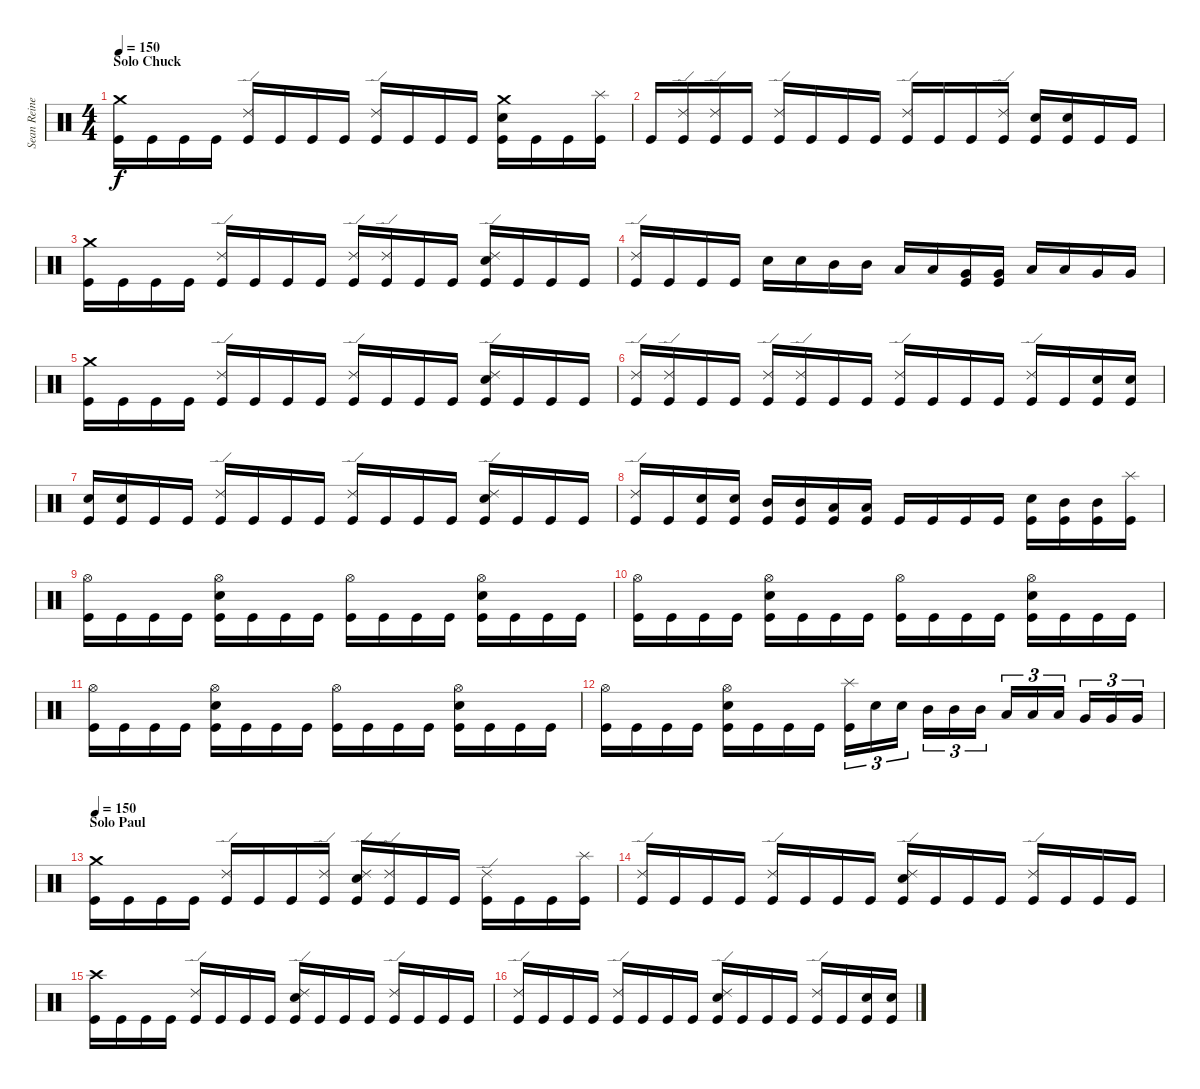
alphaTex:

\track ("Sean Reinert " "Sean Reine") {instrument percussion}
\staff {score}
\articulation defaults
\ts (4 4)
\section ("" "Solo Chuck")
\tempo 150
\clef neutral
\ks c
("Crash medium (hit)" "Kick (hit)").16{dy f} "Kick (hit)".16 "Kick (hit)".16 "Kick (hit)".16 ("Ride (edge) 2" "Kick (hit)").16 "Kick (hit)".16 "Kick (hit)".16 "Kick (hit)".16 ("Ride (edge) 2" "Kick (hit)").16 "Kick (hit)".16 "Kick (hit)".16 "Kick (hit)".16 ("Crash medium (hit)" "Electric Snare (hit)" "Kick (hit)").16 "Kick (hit)".16 "Kick (hit)".16 ("Splash (hit)" "Kick (hit)").16 |
"Kick (hit)".16 ("Ride (edge) 2" "Kick (hit)").16 ("Ride (edge) 2" "Kick (hit)").16 "Kick (hit)".16 ("Ride (edge) 2" "Kick (hit)").16 "Kick (hit)".16 "Kick (hit)".16 "Kick (hit)".16 ("Ride (edge) 2" "Kick (hit)").16 "Kick (hit)".16 "Kick (hit)".16 ("Ride (edge) 2" "Kick (hit)").16 ("Electric Snare (hit)" "Kick (hit)").16 ("Electric Snare (hit)" "Kick (hit)").16 "Kick (hit)".16 "Kick (hit)".16 |
("Crash medium (hit)" "Kick (hit)").16 "Kick (hit)".16 "Kick (hit)".16 "Kick (hit)".16 ("Ride (edge) 2" "Kick (hit)").16 "Kick (hit)".16 "Kick (hit)".16 "Kick (hit)".16 ("Ride (edge) 2" "Kick (hit)").16 ("Ride (edge) 2" "Kick (hit)").16 "Kick (hit)".16 "Kick (hit)".16 ("Ride (edge) 2" "Electric Snare (hit)" "Kick (hit)").16 "Kick (hit)".16 "Kick (hit)".16 "Kick (hit)".16 |
("Ride (edge) 2" "Kick (hit)").16 "Kick (hit)".16 "Kick (hit)".16 "Kick (hit)".16 "Electric Snare (hit)".16 "Electric Snare (hit)".16 "Mid Tom (hit)".16 "Mid Tom (hit)".16 "Low Tom (hit)".16 "Low Tom (hit)".16 ("Very Low Tom (hit)" "Kick (hit)").16 ("Very Low Tom (hit)" "Kick (hit)").16 "Low Tom (hit)".16 "Low Tom (hit)".16 "Very Low Tom (hit)".16 "Very Low Tom (hit)".16 |
("Crash medium (hit)" "Kick (hit)").16 "Kick (hit)".16 "Kick (hit)".16 "Kick (hit)".16 ("Ride (edge) 2" "Kick (hit)").16 "Kick (hit)".16 "Kick (hit)".16 "Kick (hit)".16 ("Ride (edge) 2" "Kick (hit)").16 "Kick (hit)".16 "Kick (hit)".16 "Kick (hit)".16 ("Ride (edge) 2" "Electric Snare (hit)" "Kick (hit)").16 "Kick (hit)".16 "Kick (hit)".16 "Kick (hit)".16 |
("Ride (edge) 2" "Kick (hit)").16 ("Ride (edge) 2" "Kick (hit)").16 "Kick (hit)".16 "Kick (hit)".16 ("Ride (edge) 2" "Kick (hit)").16 ("Ride (edge) 2" "Kick (hit)").16 "Kick (hit)".16 "Kick (hit)".16 ("Ride (edge) 2" "Kick (hit)").16 "Kick (hit)".16 "Kick (hit)".16 "Kick (hit)".16 ("Ride (edge) 2" "Kick (hit)").16 "Kick (hit)".16 ("Electric Snare (hit)" "Kick (hit)").16 ("Electric Snare (hit)" "Kick (hit)").16 |
("Electric Snare (hit)" "Kick (hit)").16 ("Electric Snare (hit)" "Kick (hit)").16 "Kick (hit)".16 "Kick (hit)".16 ("Ride (edge) 2" "Kick (hit)").16 "Kick (hit)".16 "Kick (hit)".16 "Kick (hit)".16 ("Ride (edge) 2" "Kick (hit)").16 "Kick (hit)".16 "Kick (hit)".16 "Kick (hit)".16 ("Ride (edge) 2" "Electric Snare (hit)" "Kick (hit)").16 "Kick (hit)".16 "Kick (hit)".16 "Kick (hit)".16 |
("Ride (edge) 2" "Kick (hit)").16 "Kick (hit)".16 ("Electric Snare (hit)" "Kick (hit)").16 ("Electric Snare (hit)" "Kick (hit)").16 ("Mid Tom (hit)" "Kick (hit)").16 ("Mid Tom (hit)" "Kick (hit)").16 ("Low Tom (hit)" "Kick (hit)").16 ("Low Tom (hit)" "Kick (hit)").16 "Kick (hit)".16 "Kick (hit)".16 "Kick (hit)".16 "Kick (hit)".16 ("Electric Snare (hit)" "Kick (hit)").16 ("Mid Tom (hit)" "Kick (hit)").16 ("Mid Tom (hit)" "Kick (hit)").16 ("Splash (hit)" "Kick (hit)").16 |
("Hi-Hat (open)" "Kick (hit)").16 "Kick (hit)".16 "Kick (hit)".16 "Kick (hit)".16 ("Hi-Hat (open)" "Electric Snare (hit)" "Kick (hit)").16 "Kick (hit)".16 "Kick (hit)".16 "Kick (hit)".16 ("Hi-Hat (open)" "Kick (hit)").16 "Kick (hit)".16 "Kick (hit)".16 "Kick (hit)".16 ("Hi-Hat (open)" "Electric Snare (hit)" "Kick (hit)").16 "Kick (hit)".16 "Kick (hit)".16 "Kick (hit)".16 |
("Hi-Hat (open)" "Kick (hit)").16 "Kick (hit)".16 "Kick (hit)".16 "Kick (hit)".16 ("Hi-Hat (open)" "Electric Snare (hit)" "Kick (hit)").16 "Kick (hit)".16 "Kick (hit)".16 "Kick (hit)".16 ("Hi-Hat (open)" "Kick (hit)").16 "Kick (hit)".16 "Kick (hit)".16 "Kick (hit)".16 ("Hi-Hat (open)" "Electric Snare (hit)" "Kick (hit)").16 "Kick (hit)".16 "Kick (hit)".16 "Kick (hit)".16 |
("Hi-Hat (open)" "Kick (hit)").16 "Kick (hit)".16 "Kick (hit)".16 "Kick (hit)".16 ("Hi-Hat (open)" "Electric Snare (hit)" "Kick (hit)").16 "Kick (hit)".16 "Kick (hit)".16 "Kick (hit)".16 ("Hi-Hat (open)" "Kick (hit)").16 "Kick (hit)".16 "Kick (hit)".16 "Kick (hit)".16 ("Hi-Hat (open)" "Electric Snare (hit)" "Kick (hit)").16 "Kick (hit)".16 "Kick (hit)".16 "Kick (hit)".16 |
("Hi-Hat (open)" "Kick (hit)").16 "Kick (hit)".16 "Kick (hit)".16 "Kick (hit)".16 ("Hi-Hat (open)" "Electric Snare (hit)" "Kick (hit)").16 "Kick (hit)".16 "Kick (hit)".16 "Kick (hit)".16 ("Splash (hit)" "Kick (hit)").16{tu (3 2)} "Electric Snare (hit)".16{tu (3 2)} "Electric Snare (hit)".16{tu (3 2)} "Mid Tom (hit)".16{tu (3 2)} "Mid Tom (hit)".16{tu (3 2)} "Mid Tom (hit)".16{tu (3 2)} "Low Tom (hit)".16{tu (3 2)} "Low Tom (hit)".16{tu (3 2)} "Low Tom (hit)".16{tu (3 2)} "Very Low Tom (hit)".16{tu (3 2)} "Very Low Tom (hit)".16{tu (3 2)} "Very Low Tom (hit)".16{tu (3 2)} |
\section ("" "Solo Paul")
\tempo 150
("Crash medium (hit)" "Kick (hit)").16 "Kick (hit)".16 "Kick (hit)".16 "Kick (hit)".16 ("Ride (edge) 2" "Kick (hit)").16 "Kick (hit)".16 "Kick (hit)".16 ("Ride (edge) 2" "Kick (hit)").16 ("Ride (edge) 2" "Electric Snare (hit)" "Kick (hit)").16 ("Ride (edge) 2" "Kick (hit)").16 "Kick (hit)".16 "Kick (hit)".16 ("Ride (edge) 2" "Kick (hit)").16 "Kick (hit)".16 "Kick (hit)".16 ("Splash (hit)" "Kick (hit)").16 |
("Ride (edge) 2" "Kick (hit)").16 "Kick (hit)".16 "Kick (hit)".16 "Kick (hit)".16 ("Ride (edge) 2" "Kick (hit)").16 "Kick (hit)".16 "Kick (hit)".16 "Kick (hit)".16 ("Ride (edge) 2" "Electric Snare (hit)" "Kick (hit)").16 "Kick (hit)".16 "Kick (hit)".16 "Kick (hit)".16 ("Ride (edge) 2" "Kick (hit)").16 "Kick (hit)".16 "Kick (hit)".16 "Kick (hit)".16 |
("Crash high (hit)" "Kick (hit)").16 "Kick (hit)".16 "Kick (hit)".16 "Kick (hit)".16 ("Ride (edge) 2" "Kick (hit)").16 "Kick (hit)".16 "Kick (hit)".16 "Kick (hit)".16 ("Ride (edge) 2" "Electric Snare (hit)" "Kick (hit)").16 "Kick (hit)".16 "Kick (hit)".16 "Kick (hit)".16 ("Ride (edge) 2" "Kick (hit)").16 "Kick (hit)".16 "Kick (hit)".16 "Kick (hit)".16 |
("Ride (edge) 2" "Kick (hit)").16 "Kick (hit)".16 "Kick (hit)".16 "Kick (hit)".16 ("Ride (edge) 2" "Kick (hit)").16 "Kick (hit)".16 "Kick (hit)".16 "Kick (hit)".16 ("Ride (edge) 2" "Electric Snare (hit)" "Kick (hit)").16 "Kick (hit)".16 "Kick (hit)".16 "Kick (hit)".16 ("Ride (edge) 2" "Kick (hit)").16 "Kick (hit)".16 ("Electric Snare (hit)" "Kick (hit)").16 ("Electric Snare (hit)" "Kick (hit)").16
